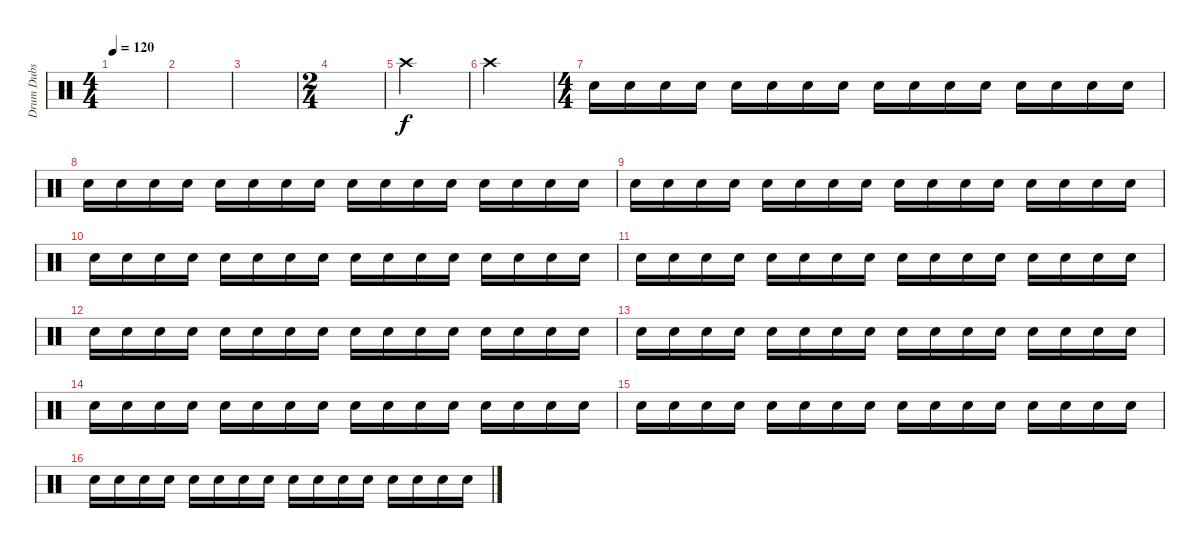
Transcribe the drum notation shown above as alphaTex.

\track ("Drum Dubs" "Drum Dubs") {instrument percussion}
\staff {score}
\articulation defaults
\ts (4 4)
\tempo 120
\clef neutral
\ks c
|
|
|
\ts (2 4)
|
"Crash high (hit)".2 |
"Crash high (hit)".2 |
\ts (4 4)
"Electric Snare (hit)".16 "Electric Snare (hit)".16 "Electric Snare (hit)".16 "Electric Snare (hit)".16 "Electric Snare (hit)".16 "Electric Snare (hit)".16 "Electric Snare (hit)".16 "Electric Snare (hit)".16 "Electric Snare (hit)".16 "Electric Snare (hit)".16 "Electric Snare (hit)".16 "Electric Snare (hit)".16 "Electric Snare (hit)".16 "Electric Snare (hit)".16 "Electric Snare (hit)".16 "Electric Snare (hit)".16 |
"Electric Snare (hit)".16 "Electric Snare (hit)".16 "Electric Snare (hit)".16 "Electric Snare (hit)".16 "Electric Snare (hit)".16 "Electric Snare (hit)".16 "Electric Snare (hit)".16 "Electric Snare (hit)".16 "Electric Snare (hit)".16 "Electric Snare (hit)".16 "Electric Snare (hit)".16 "Electric Snare (hit)".16 "Electric Snare (hit)".16 "Electric Snare (hit)".16 "Electric Snare (hit)".16 "Electric Snare (hit)".16 |
"Electric Snare (hit)".16 "Electric Snare (hit)".16 "Electric Snare (hit)".16 "Electric Snare (hit)".16 "Electric Snare (hit)".16 "Electric Snare (hit)".16 "Electric Snare (hit)".16 "Electric Snare (hit)".16 "Electric Snare (hit)".16 "Electric Snare (hit)".16 "Electric Snare (hit)".16 "Electric Snare (hit)".16 "Electric Snare (hit)".16 "Electric Snare (hit)".16 "Electric Snare (hit)".16 "Electric Snare (hit)".16 |
"Electric Snare (hit)".16 "Electric Snare (hit)".16 "Electric Snare (hit)".16 "Electric Snare (hit)".16 "Electric Snare (hit)".16 "Electric Snare (hit)".16 "Electric Snare (hit)".16 "Electric Snare (hit)".16 "Electric Snare (hit)".16 "Electric Snare (hit)".16 "Electric Snare (hit)".16 "Electric Snare (hit)".16 "Electric Snare (hit)".16 "Electric Snare (hit)".16 "Electric Snare (hit)".16 "Electric Snare (hit)".16 |
"Electric Snare (hit)".16 "Electric Snare (hit)".16 "Electric Snare (hit)".16 "Electric Snare (hit)".16 "Electric Snare (hit)".16 "Electric Snare (hit)".16 "Electric Snare (hit)".16 "Electric Snare (hit)".16 "Electric Snare (hit)".16 "Electric Snare (hit)".16 "Electric Snare (hit)".16 "Electric Snare (hit)".16 "Electric Snare (hit)".16 "Electric Snare (hit)".16 "Electric Snare (hit)".16 "Electric Snare (hit)".16 |
"Electric Snare (hit)".16 "Electric Snare (hit)".16 "Electric Snare (hit)".16 "Electric Snare (hit)".16 "Electric Snare (hit)".16 "Electric Snare (hit)".16 "Electric Snare (hit)".16 "Electric Snare (hit)".16 "Electric Snare (hit)".16 "Electric Snare (hit)".16 "Electric Snare (hit)".16 "Electric Snare (hit)".16 "Electric Snare (hit)".16 "Electric Snare (hit)".16 "Electric Snare (hit)".16 "Electric Snare (hit)".16 |
"Electric Snare (hit)".16 "Electric Snare (hit)".16 "Electric Snare (hit)".16 "Electric Snare (hit)".16 "Electric Snare (hit)".16 "Electric Snare (hit)".16 "Electric Snare (hit)".16 "Electric Snare (hit)".16 "Electric Snare (hit)".16 "Electric Snare (hit)".16 "Electric Snare (hit)".16 "Electric Snare (hit)".16 "Electric Snare (hit)".16 "Electric Snare (hit)".16 "Electric Snare (hit)".16 "Electric Snare (hit)".16 |
"Electric Snare (hit)".16 "Electric Snare (hit)".16 "Electric Snare (hit)".16 "Electric Snare (hit)".16 "Electric Snare (hit)".16 "Electric Snare (hit)".16 "Electric Snare (hit)".16 "Electric Snare (hit)".16 "Electric Snare (hit)".16 "Electric Snare (hit)".16 "Electric Snare (hit)".16 "Electric Snare (hit)".16 "Electric Snare (hit)".16 "Electric Snare (hit)".16 "Electric Snare (hit)".16 "Electric Snare (hit)".16 |
"Electric Snare (hit)".16 "Electric Snare (hit)".16 "Electric Snare (hit)".16 "Electric Snare (hit)".16 "Electric Snare (hit)".16 "Electric Snare (hit)".16 "Electric Snare (hit)".16 "Electric Snare (hit)".16 "Electric Snare (hit)".16 "Electric Snare (hit)".16 "Electric Snare (hit)".16 "Electric Snare (hit)".16 "Electric Snare (hit)".16 "Electric Snare (hit)".16 "Electric Snare (hit)".16 "Electric Snare (hit)".16 |
"Electric Snare (hit)".16 "Electric Snare (hit)".16 "Electric Snare (hit)".16 "Electric Snare (hit)".16 "Electric Snare (hit)".16 "Electric Snare (hit)".16 "Electric Snare (hit)".16 "Electric Snare (hit)".16 "Electric Snare (hit)".16 "Electric Snare (hit)".16 "Electric Snare (hit)".16 "Electric Snare (hit)".16 "Electric Snare (hit)".16 "Electric Snare (hit)".16 "Electric Snare (hit)".16 "Electric Snare (hit)".16
